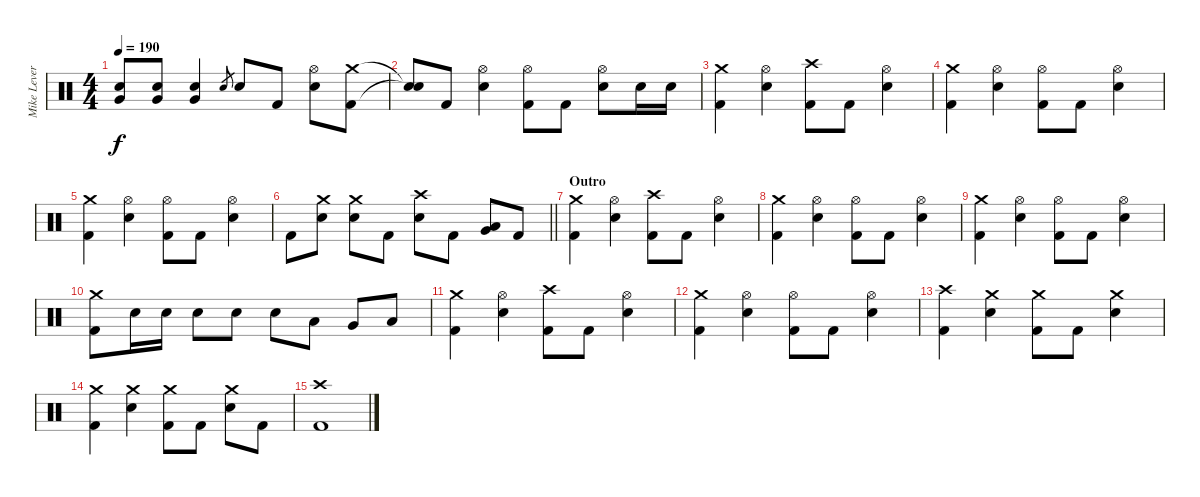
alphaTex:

\track ("Mike Leverence - Drums" "Mike Lever") {instrument percussion}
\staff {score}
\articulation defaults
\ts (4 4)
\tempo 190
\clef neutral
\ks c
("Electric Snare (hit)" "Very Low Tom (hit)").8{dy f} ("Electric Snare (hit)" "Very Low Tom (hit)").8 ("Electric Snare (hit)" "Very Low Tom (hit)").4 "Electric Snare (hit)".8{gr} "Electric Snare (hit)".8 "Kick (hit) 2".8 ("Hi-Hat (open)" "Electric Snare (hit)").8 ("Crash medium (hit)" "Kick (hit) 2").8 |
("Snare (hit)"{t} "Snare (hit)"{t}).8 "Kick (hit) 2".8 ("Hi-Hat (open)" "Electric Snare (hit)").4 ("Hi-Hat (open)" "Kick (hit) 2").8 "Kick (hit) 2".8 ("Hi-Hat (open)" "Electric Snare (hit)").8 "Electric Snare (hit)".16 "Electric Snare (hit)".16 |
("Crash medium (hit)" "Kick (hit) 2").4 ("Hi-Hat (open)" "Electric Snare (hit)").4 ("Crash high (hit)" "Kick (hit) 2").8 "Kick (hit) 2".8 ("Hi-Hat (open)" "Electric Snare (hit)").4 |
("Crash medium (hit)" "Kick (hit) 2").4 ("Hi-Hat (open)" "Electric Snare (hit)").4 ("Hi-Hat (open)" "Kick (hit) 2").8 "Kick (hit) 2".8 ("Hi-Hat (open)" "Electric Snare (hit)").4 |
("Crash medium (hit)" "Kick (hit) 2").4 ("Hi-Hat (open)" "Electric Snare (hit)").4 ("Hi-Hat (open)" "Kick (hit) 2").8 "Kick (hit) 2".8 ("Hi-Hat (open)" "Electric Snare (hit)").4 |
\barLineRight lightlight "Kick (hit) 2".8
("Crash medium (hit)" "Electric Snare (hit)").8 ("Crash medium (hit)" "Electric Snare (hit)").8 "Kick (hit) 2".8 ("Crash high (hit)" "Electric Snare (hit)").8 "Kick (hit) 2".8 ("Low Tom (hit)" "Very Low Tom (hit)").8 "Kick (hit) 2".8 |
\section ("" "Outro")
("Crash medium (hit)" "Kick (hit) 2").4 ("Hi-Hat (open)" "Electric Snare (hit)").4 ("Crash high (hit)" "Kick (hit) 2").8 "Kick (hit) 2".8 ("Hi-Hat (open)" "Electric Snare (hit)").4 |
("Crash medium (hit)" "Kick (hit) 2").4 ("Hi-Hat (open)" "Electric Snare (hit)").4 ("Hi-Hat (open)" "Kick (hit) 2").8 "Kick (hit) 2".8 ("Hi-Hat (open)" "Electric Snare (hit)").4 |
("Crash medium (hit)" "Kick (hit) 2").4 ("Hi-Hat (open)" "Electric Snare (hit)").4 ("Hi-Hat (open)" "Kick (hit) 2").8 "Kick (hit) 2".8 ("Hi-Hat (open)" "Electric Snare (hit)").4 |
("Crash medium (hit)" "Kick (hit) 2").8 "Electric Snare (hit)".16 "Electric Snare (hit)".16 "Electric Snare (hit)".8 "Electric Snare (hit)".8 "Electric Snare (hit)".8 "Low Tom (hit)".8 "Very Low Tom (hit)".8 "Low Floor Tom (hit)".8 |
("Crash medium (hit)" "Kick (hit) 2").4 ("Hi-Hat (open)" "Electric Snare (hit)").4 ("Crash high (hit)" "Kick (hit) 2").8 "Kick (hit) 2".8 ("Hi-Hat (open)" "Electric Snare (hit)").4 |
("Crash medium (hit)" "Kick (hit) 2").4 ("Hi-Hat (open)" "Electric Snare (hit)").4 ("Hi-Hat (open)" "Kick (hit) 2").8 "Kick (hit) 2".8 ("Hi-Hat (open)" "Electric Snare (hit)").4 |
("Crash high (hit)" "Kick (hit) 2").4 ("Crash medium (hit)" "Electric Snare (hit)").4 ("Crash medium (hit)" "Kick (hit) 2").8 "Kick (hit) 2".8 ("Crash medium (hit)" "Electric Snare (hit)").4 |
("Crash medium (hit)" "Kick (hit) 2").4 ("Crash medium (hit)" "Electric Snare (hit)").4 ("Crash medium (hit)" "Kick (hit) 2").8 "Kick (hit) 2".8 ("Crash medium (hit)" "Electric Snare (hit)").8 "Kick (hit) 2".8 |
("Crash high (hit)" "Kick (hit) 2").1
